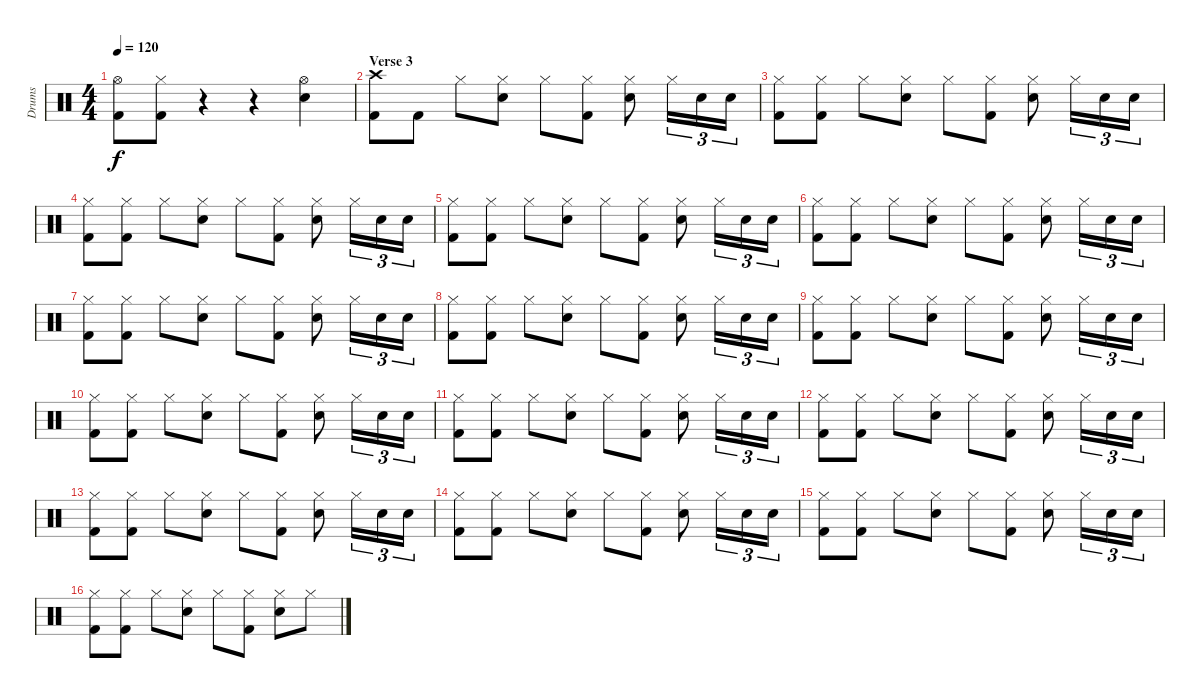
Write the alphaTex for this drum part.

\track ("Drums" "Drums") {instrument percussion}
\staff {score}
\articulation defaults
\ts (4 4)
\tempo 120
\clef neutral
\ks c
("Hi-Hat (open)" "Kick (hit) 2").8{dy f} ("Hi-Hat (closed)" "Kick (hit) 2").8 r.4 r.4 ("Hi-Hat (open)" "Snare (hit) 2").4 |
\section ("" "Verse 3")
("Crash high (hit)" "Kick (hit) 2").8 "Kick (hit) 2".8 "Hi-Hat (closed)".8 ("Hi-Hat (closed)" "Snare (hit) 2").8 "Hi-Hat (closed)".8 ("Hi-Hat (closed)" "Kick (hit) 2").8 ("Hi-Hat (closed)" "Snare (hit) 2").8 "Hi-Hat (closed)".16{tu (3 2)} "Snare (hit) 2".16{tu (3 2)} "Snare (hit) 2".16{tu (3 2)} |
("Hi-Hat (closed)" "Kick (hit) 2").8 ("Hi-Hat (closed)" "Kick (hit) 2").8 "Hi-Hat (closed)".8 ("Hi-Hat (closed)" "Snare (hit) 2").8 "Hi-Hat (closed)".8 ("Hi-Hat (closed)" "Kick (hit) 2").8 ("Hi-Hat (closed)" "Snare (hit) 2").8 "Hi-Hat (closed)".16{tu (3 2)} "Snare (hit) 2".16{tu (3 2)} "Snare (hit) 2".16{tu (3 2)} |
("Hi-Hat (closed)" "Kick (hit) 2").8 ("Hi-Hat (closed)" "Kick (hit) 2").8 "Hi-Hat (closed)".8 ("Hi-Hat (closed)" "Snare (hit) 2").8 "Hi-Hat (closed)".8 ("Hi-Hat (closed)" "Kick (hit) 2").8 ("Hi-Hat (closed)" "Snare (hit) 2").8 "Hi-Hat (closed)".16{tu (3 2)} "Snare (hit) 2".16{tu (3 2)} "Snare (hit) 2".16{tu (3 2)} |
("Hi-Hat (closed)" "Kick (hit) 2").8 ("Hi-Hat (closed)" "Kick (hit) 2").8 "Hi-Hat (closed)".8 ("Hi-Hat (closed)" "Snare (hit) 2").8 "Hi-Hat (closed)".8 ("Hi-Hat (closed)" "Kick (hit) 2").8 ("Hi-Hat (closed)" "Snare (hit) 2").8 "Hi-Hat (closed)".16{tu (3 2)} "Snare (hit) 2".16{tu (3 2)} "Snare (hit) 2".16{tu (3 2)} |
("Hi-Hat (closed)" "Kick (hit) 2").8 ("Hi-Hat (closed)" "Kick (hit) 2").8 "Hi-Hat (closed)".8 ("Hi-Hat (closed)" "Snare (hit) 2").8 "Hi-Hat (closed)".8 ("Hi-Hat (closed)" "Kick (hit) 2").8 ("Hi-Hat (closed)" "Snare (hit) 2").8 "Hi-Hat (closed)".16{tu (3 2)} "Snare (hit) 2".16{tu (3 2)} "Snare (hit) 2".16{tu (3 2)} |
("Hi-Hat (closed)" "Kick (hit) 2").8 ("Hi-Hat (closed)" "Kick (hit) 2").8 "Hi-Hat (closed)".8 ("Hi-Hat (closed)" "Snare (hit) 2").8 "Hi-Hat (closed)".8 ("Hi-Hat (closed)" "Kick (hit) 2").8 ("Hi-Hat (closed)" "Snare (hit) 2").8 "Hi-Hat (closed)".16{tu (3 2)} "Snare (hit) 2".16{tu (3 2)} "Snare (hit) 2".16{tu (3 2)} |
("Hi-Hat (closed)" "Kick (hit) 2").8 ("Hi-Hat (closed)" "Kick (hit) 2").8 "Hi-Hat (closed)".8 ("Hi-Hat (closed)" "Snare (hit) 2").8 "Hi-Hat (closed)".8 ("Hi-Hat (closed)" "Kick (hit) 2").8 ("Hi-Hat (closed)" "Snare (hit) 2").8 "Hi-Hat (closed)".16{tu (3 2)} "Snare (hit) 2".16{tu (3 2)} "Snare (hit) 2".16{tu (3 2)} |
("Hi-Hat (closed)" "Kick (hit) 2").8 ("Hi-Hat (closed)" "Kick (hit) 2").8 "Hi-Hat (closed)".8 ("Hi-Hat (closed)" "Snare (hit) 2").8 "Hi-Hat (closed)".8 ("Hi-Hat (closed)" "Kick (hit) 2").8 ("Hi-Hat (closed)" "Snare (hit) 2").8 "Hi-Hat (closed)".16{tu (3 2)} "Snare (hit) 2".16{tu (3 2)} "Snare (hit) 2".16{tu (3 2)} |
("Hi-Hat (closed)" "Kick (hit) 2").8 ("Hi-Hat (closed)" "Kick (hit) 2").8 "Hi-Hat (closed)".8 ("Hi-Hat (closed)" "Snare (hit) 2").8 "Hi-Hat (closed)".8 ("Hi-Hat (closed)" "Kick (hit) 2").8 ("Hi-Hat (closed)" "Snare (hit) 2").8 "Hi-Hat (closed)".16{tu (3 2)} "Snare (hit) 2".16{tu (3 2)} "Snare (hit) 2".16{tu (3 2)} |
("Hi-Hat (closed)" "Kick (hit) 2").8 ("Hi-Hat (closed)" "Kick (hit) 2").8 "Hi-Hat (closed)".8 ("Hi-Hat (closed)" "Snare (hit) 2").8 "Hi-Hat (closed)".8 ("Hi-Hat (closed)" "Kick (hit) 2").8 ("Hi-Hat (closed)" "Snare (hit) 2").8 "Hi-Hat (closed)".16{tu (3 2)} "Snare (hit) 2".16{tu (3 2)} "Snare (hit) 2".16{tu (3 2)} |
("Hi-Hat (closed)" "Kick (hit) 2").8 ("Hi-Hat (closed)" "Kick (hit) 2").8 "Hi-Hat (closed)".8 ("Hi-Hat (closed)" "Snare (hit) 2").8 "Hi-Hat (closed)".8 ("Hi-Hat (closed)" "Kick (hit) 2").8 ("Hi-Hat (closed)" "Snare (hit) 2").8 "Hi-Hat (closed)".16{tu (3 2)} "Snare (hit) 2".16{tu (3 2)} "Snare (hit) 2".16{tu (3 2)} |
("Hi-Hat (closed)" "Kick (hit) 2").8 ("Hi-Hat (closed)" "Kick (hit) 2").8 "Hi-Hat (closed)".8 ("Hi-Hat (closed)" "Snare (hit) 2").8 "Hi-Hat (closed)".8 ("Hi-Hat (closed)" "Kick (hit) 2").8 ("Hi-Hat (closed)" "Snare (hit) 2").8 "Hi-Hat (closed)".16{tu (3 2)} "Snare (hit) 2".16{tu (3 2)} "Snare (hit) 2".16{tu (3 2)} |
("Hi-Hat (closed)" "Kick (hit) 2").8 ("Hi-Hat (closed)" "Kick (hit) 2").8 "Hi-Hat (closed)".8 ("Hi-Hat (closed)" "Snare (hit) 2").8 "Hi-Hat (closed)".8 ("Hi-Hat (closed)" "Kick (hit) 2").8 ("Hi-Hat (closed)" "Snare (hit) 2").8 "Hi-Hat (closed)".16{tu (3 2)} "Snare (hit) 2".16{tu (3 2)} "Snare (hit) 2".16{tu (3 2)} |
("Hi-Hat (closed)" "Kick (hit) 2").8 ("Hi-Hat (closed)" "Kick (hit) 2").8 "Hi-Hat (closed)".8 ("Hi-Hat (closed)" "Snare (hit) 2").8 "Hi-Hat (closed)".8 ("Hi-Hat (closed)" "Kick (hit) 2").8 ("Hi-Hat (closed)" "Snare (hit) 2").8 "Hi-Hat (closed)".16{tu (3 2)} "Snare (hit) 2".16{tu (3 2)} "Snare (hit) 2".16{tu (3 2)} |
("Hi-Hat (closed)" "Kick (hit) 2").8 ("Hi-Hat (closed)" "Kick (hit) 2").8 "Hi-Hat (closed)".8 ("Hi-Hat (closed)" "Snare (hit) 2").8 "Hi-Hat (closed)".8 ("Hi-Hat (closed)" "Kick (hit) 2").8 ("Hi-Hat (closed)" "Snare (hit) 2").8 "Hi-Hat (closed)".8
